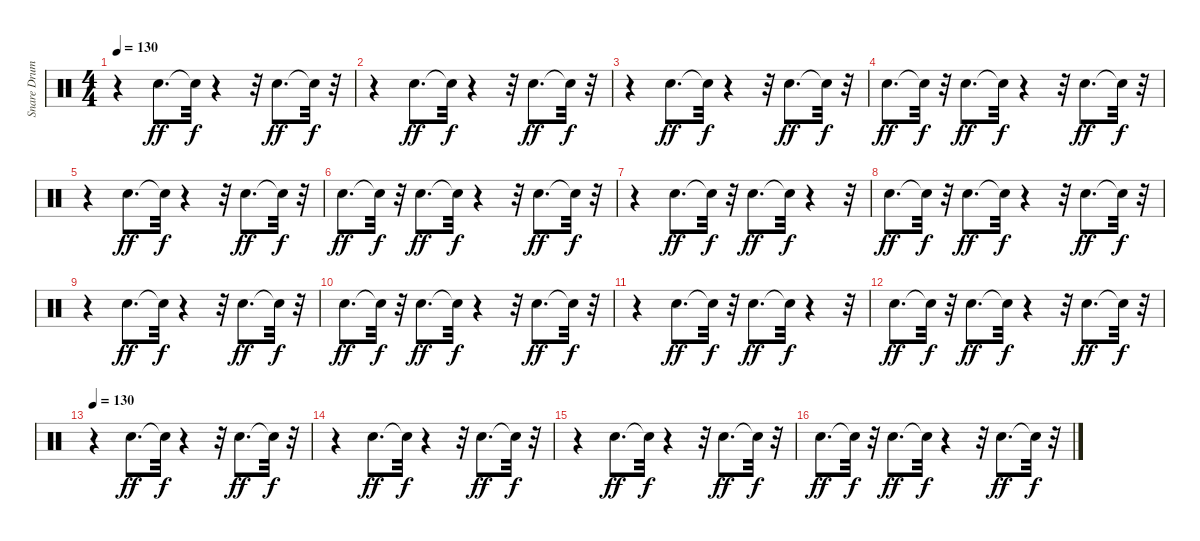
\track ("Snare Drum" "Snare Drum") {instrument percussion}
\staff {score}
\articulation defaults
\ts (4 4)
\tempo 130
\clef neutral
\ks c
r.4{dy f} "Snare (hit) 2".8{d dy ff} "Snare (hit)"{t}.32{dy f} r.4 r.32 "Snare (hit) 2".8{d dy ff} "Snare (hit)"{t}.32{dy f} r.32 |
r.4 "Snare (hit) 2".8{d dy ff} "Snare (hit)"{t}.32{dy f} r.4 r.32 "Snare (hit) 2".8{d dy ff} "Snare (hit)"{t}.32{dy f} r.32 |
r.4 "Snare (hit) 2".8{d dy ff} "Snare (hit)"{t}.32{dy f} r.4 r.32 "Snare (hit) 2".8{d dy ff} "Snare (hit)"{t}.32{dy f} r.32 |
"Snare (hit) 2".8{d dy ff} "Snare (hit)"{t}.32{dy f} r.32 "Snare (hit) 2".8{d dy ff} "Snare (hit)"{t}.32{dy f} r.4 r.32 "Snare (hit) 2".8{d dy ff} "Snare (hit)"{t}.32{dy f} r.32 |
r.4 "Snare (hit) 2".8{d dy ff} "Snare (hit)"{t}.32{dy f} r.4 r.32 "Snare (hit) 2".8{d dy ff} "Snare (hit)"{t}.32{dy f} r.32 |
"Snare (hit) 2".8{d dy ff} "Snare (hit)"{t}.32{dy f} r.32 "Snare (hit) 2".8{d dy ff} "Snare (hit)"{t}.32{dy f} r.4 r.32 "Snare (hit) 2".8{d dy ff} "Snare (hit)"{t}.32{dy f} r.32 |
r.4 "Snare (hit) 2".8{d dy ff} "Snare (hit)"{t}.32{dy f} r.32 "Snare (hit) 2".8{d dy ff} "Snare (hit)"{t}.32{dy f} r.4 r.32 |
"Snare (hit) 2".8{d dy ff} "Snare (hit)"{t}.32{dy f} r.32 "Snare (hit) 2".8{d dy ff} "Snare (hit)"{t}.32{dy f} r.4 r.32 "Snare (hit) 2".8{d dy ff} "Snare (hit)"{t}.32{dy f} r.32 |
r.4 "Snare (hit) 2".8{d dy ff} "Snare (hit)"{t}.32{dy f} r.4 r.32 "Snare (hit) 2".8{d dy ff} "Snare (hit)"{t}.32{dy f} r.32 |
"Snare (hit) 2".8{d dy ff} "Snare (hit)"{t}.32{dy f} r.32 "Snare (hit) 2".8{d dy ff} "Snare (hit)"{t}.32{dy f} r.4 r.32 "Snare (hit) 2".8{d dy ff} "Snare (hit)"{t}.32{dy f} r.32 |
r.4 "Snare (hit) 2".8{d dy ff} "Snare (hit)"{t}.32{dy f} r.32 "Snare (hit) 2".8{d dy ff} "Snare (hit)"{t}.32{dy f} r.4 r.32 |
"Snare (hit) 2".8{d dy ff} "Snare (hit)"{t}.32{dy f} r.32 "Snare (hit) 2".8{d dy ff} "Snare (hit)"{t}.32{dy f} r.4 r.32 "Snare (hit) 2".8{d dy ff} "Snare (hit)"{t}.32{dy f} r.32 |
\tempo 130
r.4 "Snare (hit) 2".8{d dy ff} "Snare (hit)"{t}.32{dy f} r.4 r.32 "Snare (hit) 2".8{d dy ff} "Snare (hit)"{t}.32{dy f} r.32 |
r.4 "Snare (hit) 2".8{d dy ff} "Snare (hit)"{t}.32{dy f} r.4 r.32 "Snare (hit) 2".8{d dy ff} "Snare (hit)"{t}.32{dy f} r.32 |
r.4 "Snare (hit) 2".8{d dy ff} "Snare (hit)"{t}.32{dy f} r.4 r.32 "Snare (hit) 2".8{d dy ff} "Snare (hit)"{t}.32{dy f} r.32 |
"Snare (hit) 2".8{d dy ff} "Snare (hit)"{t}.32{dy f} r.32 "Snare (hit) 2".8{d dy ff} "Snare (hit)"{t}.32{dy f} r.4 r.32 "Snare (hit) 2".8{d dy ff} "Snare (hit)"{t}.32{dy f} r.32
